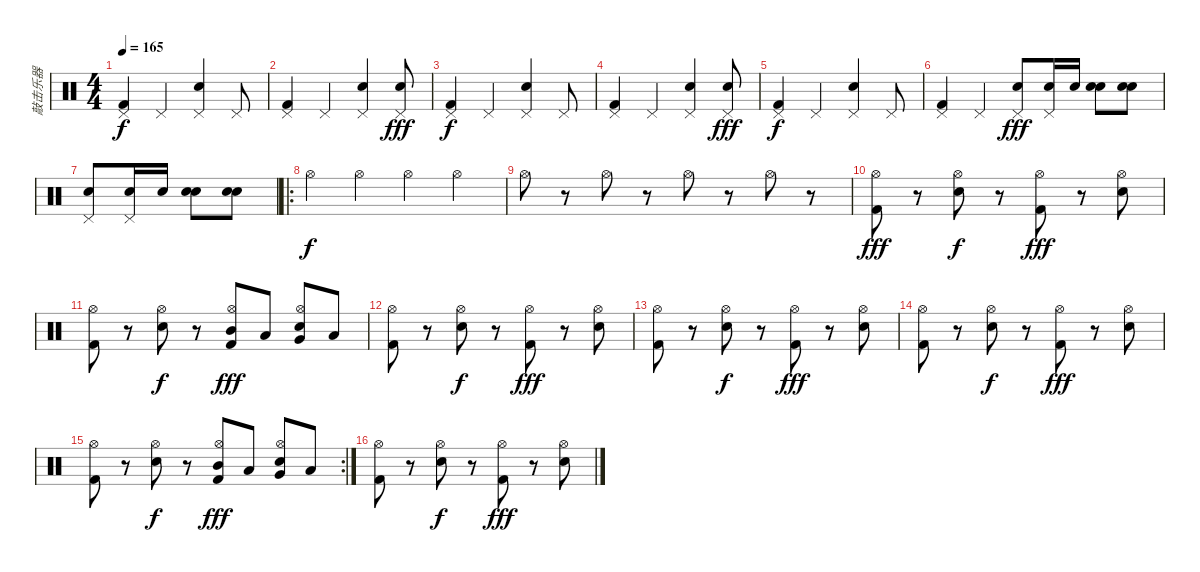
\track ("敲击乐器" "敲击乐器") {instrument percussion}
\staff {score}
\articulation defaults
\ts (4 4)
\tempo 165
\clef neutral
\ks c
("Pedal Hi-Hat (hit)" "Kick (hit) 2").4{dy f} "Pedal Hi-Hat (hit)".4 ("Pedal Hi-Hat (hit)" "Snare (hit) 2").4 "Pedal Hi-Hat (hit)".8 |
("Pedal Hi-Hat (hit)" "Kick (hit) 2").4 "Pedal Hi-Hat (hit)".4 ("Pedal Hi-Hat (hit)" "Snare (hit) 2").4 ("Pedal Hi-Hat (hit)" "Snare (hit) 2").8{dy fff} |
("Pedal Hi-Hat (hit)" "Kick (hit) 2").4{dy f} "Pedal Hi-Hat (hit)".4 ("Pedal Hi-Hat (hit)" "Snare (hit) 2").4 "Pedal Hi-Hat (hit)".8 |
("Pedal Hi-Hat (hit)" "Kick (hit) 2").4 "Pedal Hi-Hat (hit)".4 ("Pedal Hi-Hat (hit)" "Snare (hit) 2").4 ("Pedal Hi-Hat (hit)" "Snare (hit) 2").8{dy fff} |
("Pedal Hi-Hat (hit)" "Kick (hit) 2").4{dy f} "Pedal Hi-Hat (hit)".4 ("Pedal Hi-Hat (hit)" "Snare (hit) 2").4 "Pedal Hi-Hat (hit)".8 |
("Pedal Hi-Hat (hit)" "Kick (hit) 2").4 "Pedal Hi-Hat (hit)".4 ("Pedal Hi-Hat (hit)" "Snare (hit) 2").8{dy fff} ("Pedal Hi-Hat (hit)" "Snare (hit) 2").16 "Snare (hit) 2".16 ("Snare (hit) 2" "Snare (hit) 2").8 ("Electric Snare (hit)" "Snare (hit) 2").8 |
("Pedal Hi-Hat (hit)" "Snare (hit) 2").8 ("Pedal Hi-Hat (hit)" "Snare (hit) 2").16 "Snare (hit) 2".16 ("Snare (hit) 2" "Snare (hit) 2").8 ("Electric Snare (hit)" "Snare (hit) 2").8 |
\ro "Hi-Hat (open)".4{dy f} "Hi-Hat (open)".4 "Hi-Hat (open)".4 "Hi-Hat (open)".4
|
"Hi-Hat (open)".8 r.8 "Hi-Hat (open)".8 r.8 "Hi-Hat (open)".8 r.8 "Hi-Hat (open)".8 r.8 |
("Kick (hit) 2" "Hi-Hat (open)").8{dy fff} r.8 ("Snare (hit) 2" "Hi-Hat (open)").8{dy f} r.8 ("Kick (hit) 2" "Hi-Hat (open)").8{dy fff} r.8 ("Snare (hit) 2" "Hi-Hat (open)").8 |
("Kick (hit) 2" "Hi-Hat (open)").8 r.8 ("Snare (hit) 2" "Hi-Hat (open)").8{dy f} r.8 ("Kick (hit) 2" "Hi-Hat (open)" "Mid Tom (hit)").8{dy fff} "Low Tom (hit)".8 ("Snare (hit) 2" "Hi-Hat (open)" "Very Low Tom (hit)").8 "Low Floor Tom (hit)".8 |
("Kick (hit) 2" "Hi-Hat (open)").8 r.8 ("Snare (hit) 2" "Hi-Hat (open)").8{dy f} r.8 ("Kick (hit) 2" "Hi-Hat (open)").8{dy fff} r.8 ("Snare (hit) 2" "Hi-Hat (open)").8 |
("Kick (hit) 2" "Hi-Hat (open)").8 r.8 ("Snare (hit) 2" "Hi-Hat (open)").8{dy f} r.8 ("Kick (hit) 2" "Hi-Hat (open)").8{dy fff} r.8 ("Snare (hit) 2" "Hi-Hat (open)").8 |
("Kick (hit) 2" "Hi-Hat (open)").8 r.8 ("Snare (hit) 2" "Hi-Hat (open)").8{dy f} r.8 ("Kick (hit) 2" "Hi-Hat (open)").8{dy fff} r.8 ("Snare (hit) 2" "Hi-Hat (open)").8 |
\rc 2
("Kick (hit) 2" "Hi-Hat (open)").8 r.8 ("Snare (hit) 2" "Hi-Hat (open)").8{dy f} r.8 ("Kick (hit) 2" "Hi-Hat (open)" "Mid Tom (hit)").8{dy fff} "Low Tom (hit)".8 ("Snare (hit) 2" "Hi-Hat (open)" "Very Low Tom (hit)").8 "Low Floor Tom (hit)".8 |
("Kick (hit) 2" "Hi-Hat (open)").8 r.8 ("Snare (hit) 2" "Hi-Hat (open)").8{dy f} r.8 ("Kick (hit) 2" "Hi-Hat (open)").8{dy fff} r.8 ("Snare (hit) 2" "Hi-Hat (open)").8
